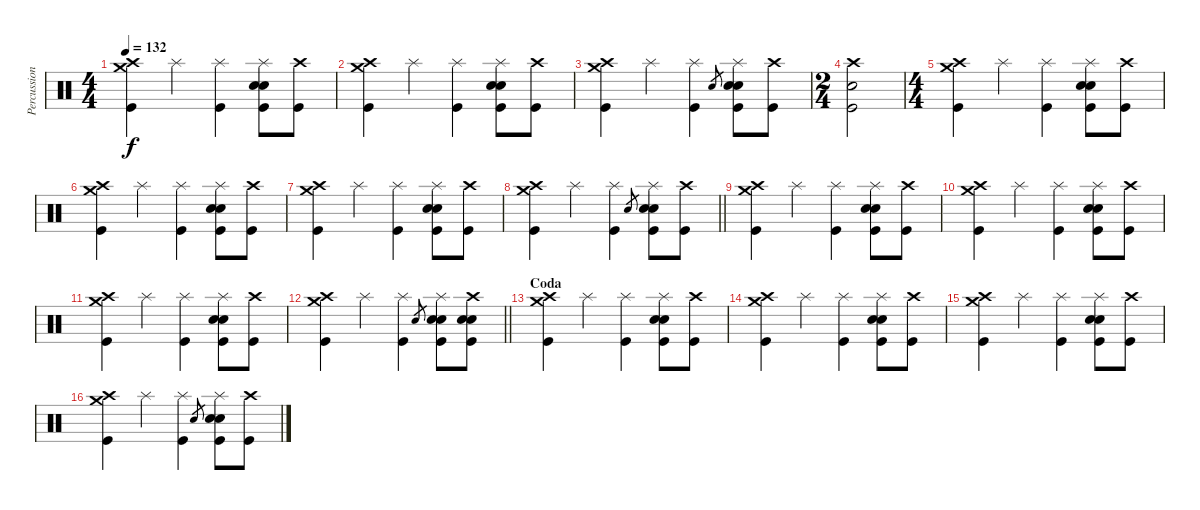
\track ("Percussion" "Percussion") {instrument percussion}
\staff {score}
\articulation defaults
\ts (4 4)
\tempo 132
\clef neutral
\ks c
("Crash high (hit)" "Crash medium (hit)" "Kick (hit)").4{dy f} "Splash (hit)".4 ("Splash (hit)" "Kick (hit)").4 ("Splash (hit)" "Electric Snare (hit)" "Snare (hit) 2" "Kick (hit)").8 ("Crash high (hit)" "Kick (hit)").8 |
("Crash high (hit)" "Crash medium (hit)" "Kick (hit)").4 "Splash (hit)".4 ("Splash (hit)" "Kick (hit)").4 ("Splash (hit)" "Electric Snare (hit)" "Snare (hit) 2" "Kick (hit)").8 ("Crash high (hit)" "Kick (hit)").8 |
("Crash high (hit)" "Crash medium (hit)" "Kick (hit)").4 "Splash (hit)".4 ("Splash (hit)" "Kick (hit)").4 "Electric Snare (hit)".8{gr} ("Splash (hit)" "Electric Snare (hit)" "Snare (hit) 2" "Kick (hit)").8 ("Crash high (hit)" "Kick (hit)").8 |
\ts (2 4)
("Crash high (hit)" "Electric Snare (hit)" "Kick (hit)").2 |
\ts (4 4)
("Crash high (hit)" "Crash medium (hit)" "Kick (hit)").4 "Splash (hit)".4 ("Splash (hit)" "Kick (hit)").4 ("Splash (hit)" "Electric Snare (hit)" "Snare (hit) 2" "Kick (hit)").8 ("Crash high (hit)" "Kick (hit)").8 |
("Crash high (hit)" "Crash medium (hit)" "Kick (hit)").4 "Splash (hit)".4 ("Splash (hit)" "Kick (hit)").4 ("Splash (hit)" "Electric Snare (hit)" "Snare (hit) 2" "Kick (hit)").8 ("Crash high (hit)" "Kick (hit)").8 |
("Crash high (hit)" "Crash medium (hit)" "Kick (hit)").4 "Splash (hit)".4 ("Splash (hit)" "Kick (hit)").4 ("Splash (hit)" "Electric Snare (hit)" "Snare (hit) 2" "Kick (hit)").8 ("Crash high (hit)" "Kick (hit)").8 |
\barLineRight lightlight
("Crash high (hit)" "Crash medium (hit)" "Kick (hit)").4 "Splash (hit)".4 ("Splash (hit)" "Kick (hit)").4 "Electric Snare (hit)".8{gr} ("Splash (hit)" "Electric Snare (hit)" "Snare (hit) 2" "Kick (hit)").8 ("Crash high (hit)" "Kick (hit)").8 |
("Crash high (hit)" "Crash medium (hit)" "Kick (hit)").4 "Splash (hit)".4 ("Splash (hit)" "Kick (hit)").4 ("Splash (hit)" "Electric Snare (hit)" "Snare (hit) 2" "Kick (hit)").8 ("Crash high (hit)" "Kick (hit)").8 |
("Crash high (hit)" "Crash medium (hit)" "Kick (hit)").4 "Splash (hit)".4 ("Splash (hit)" "Kick (hit)").4 ("Splash (hit)" "Electric Snare (hit)" "Snare (hit) 2" "Kick (hit)").8 ("Crash high (hit)" "Kick (hit)").8 |
("Crash high (hit)" "Crash medium (hit)" "Kick (hit)").4 "Splash (hit)".4 ("Splash (hit)" "Kick (hit)").4 ("Splash (hit)" "Electric Snare (hit)" "Snare (hit) 2" "Kick (hit)").8 ("Crash high (hit)" "Kick (hit)").8 |
\barLineRight lightlight
("Crash high (hit)" "Crash medium (hit)" "Kick (hit)").4 "Splash (hit)".4 ("Splash (hit)" "Kick (hit)").4 "Electric Snare (hit)".8{gr} ("Splash (hit)" "Electric Snare (hit)" "Snare (hit) 2" "Kick (hit)").8 ("Crash high (hit)" "Electric Snare (hit)" "Snare (hit) 2" "Kick (hit)").8 |
\section ("" "Coda")
("Crash high (hit)" "Crash medium (hit)" "Kick (hit)").4 "Splash (hit)".4 ("Splash (hit)" "Kick (hit)").4 ("Splash (hit)" "Electric Snare (hit)" "Snare (hit) 2" "Kick (hit)").8 ("Crash high (hit)" "Kick (hit)").8 |
("Crash high (hit)" "Crash medium (hit)" "Kick (hit)").4 "Splash (hit)".4 ("Splash (hit)" "Kick (hit)").4 ("Splash (hit)" "Electric Snare (hit)" "Snare (hit) 2" "Kick (hit)").8 ("Crash high (hit)" "Kick (hit)").8 |
("Crash high (hit)" "Crash medium (hit)" "Kick (hit)").4 "Splash (hit)".4 ("Splash (hit)" "Kick (hit)").4 ("Splash (hit)" "Electric Snare (hit)" "Snare (hit) 2" "Kick (hit)").8 ("Crash high (hit)" "Kick (hit)").8 |
("Crash high (hit)" "Crash medium (hit)" "Kick (hit)").4 "Splash (hit)".4 ("Splash (hit)" "Kick (hit)").4 "Electric Snare (hit)".8{gr} ("Splash (hit)" "Electric Snare (hit)" "Snare (hit) 2" "Kick (hit)").8 ("Crash high (hit)" "Kick (hit)").8
